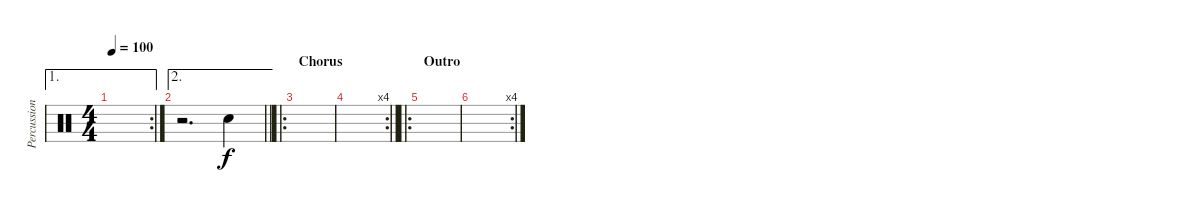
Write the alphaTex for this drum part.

\track ("Percussion" "Percussion") {instrument percussion}
\staff {score}
\articulation defaults
\ae 1
\rc 2
\ts (4 4)
\tempo 100
\clef neutral
\ks c
|
\ae 2
\barLineRight lightlight
r.2{d} "Electric Snare (hit)".4 |
\ro
\section ("" "Chorus")
|
\rc 4
\barLineRight lightlight
|
\ro
\section ("" "Outro")
|
\rc 4
